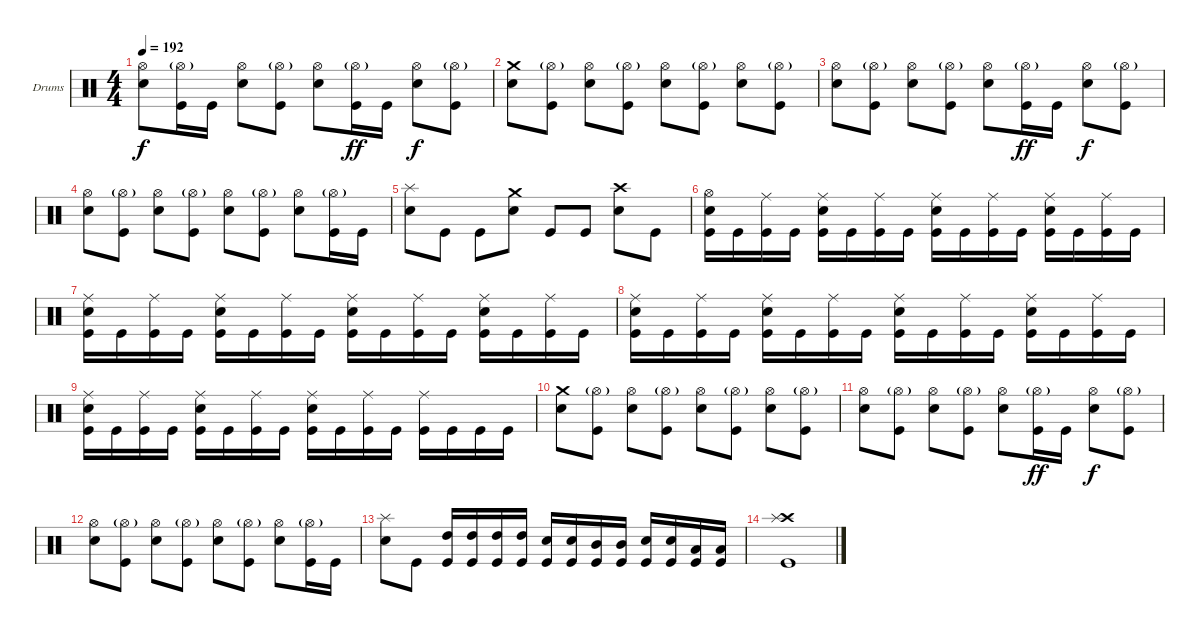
\bracketExtendMode groupsimilarinstruments
\firstSystemTrackNameOrientation horizontal
\otherSystemsTrackNameOrientation horizontal
\track ("Corey Friedlander" "Drums") {instrument percussion}
\staff {score}
\articulation defaults
\ts (4 4)
\tempo 192
\clef neutral
\ks aminor
("Snare (hit) 2" "Hi-Hat (open)").8{dy f} ("Kick (hit)" "Hi-Hat (open)"{g}).16 "Kick (hit)".16 ("Snare (hit) 2" "Hi-Hat (open)").8 ("Kick (hit)" "Hi-Hat (open)"{g}).8 ("Snare (hit) 2" "Hi-Hat (open)").8 ("Kick (hit)" "Hi-Hat (open)"{g}).16{dy ff} "Kick (hit)".16 ("Snare (hit) 2" "Hi-Hat (open)").8{dy f} ("Kick (hit)" "Hi-Hat (open)"{g}).8 |
("Snare (hit) 2" "Crash medium (hit)").8 ("Kick (hit)" "Hi-Hat (open)"{g}).8 ("Snare (hit) 2" "Hi-Hat (open)").8 ("Kick (hit)" "Hi-Hat (open)"{g}).8 ("Snare (hit) 2" "Hi-Hat (open)").8 ("Kick (hit)" "Hi-Hat (open)"{g}).8 ("Snare (hit) 2" "Hi-Hat (open)").8 ("Kick (hit)" "Hi-Hat (open)"{g}).8 |
("Snare (hit) 2" "Hi-Hat (open)").8 ("Kick (hit)" "Hi-Hat (open)"{g}).8 ("Snare (hit) 2" "Hi-Hat (open)").8 ("Kick (hit)" "Hi-Hat (open)"{g}).8 ("Snare (hit) 2" "Hi-Hat (open)").8 ("Kick (hit)" "Hi-Hat (open)"{g}).16{dy ff} "Kick (hit)".16 ("Snare (hit) 2" "Hi-Hat (open)").8{dy f} ("Kick (hit)" "Hi-Hat (open)"{g}).8 |
("Snare (hit) 2" "Hi-Hat (open)").8 ("Kick (hit)" "Hi-Hat (open)"{g}).8 ("Snare (hit) 2" "Hi-Hat (open)").8 ("Kick (hit)" "Hi-Hat (open)"{g}).8 ("Snare (hit) 2" "Hi-Hat (open)").8 ("Kick (hit)" "Hi-Hat (open)"{g}).8 ("Snare (hit) 2" "Hi-Hat (open)").8 ("Kick (hit)" "Hi-Hat (open)"{g}).16 "Kick (hit)".16 |
("Snare (hit) 2" "Splash (hit)").8 "Kick (hit)".8 "Kick (hit)".8 ("Snare (hit) 2" "Crash medium (hit)").8 "Kick (hit)".8 "Kick (hit)".8 ("Snare (hit) 2" "Crash high (hit)").8 "Kick (hit)".8 |
("Snare (hit) 2" "Kick (hit)" "Hi-Hat (open)").16 "Kick (hit)".16 ("Kick (hit)" "Ride (middle)").16 "Kick (hit)".16 ("Kick (hit)" "Snare (hit) 2" "Ride (middle)").16 "Kick (hit)".16 ("Kick (hit)" "Ride (middle)").16 "Kick (hit)".16 ("Kick (hit)" "Snare (hit) 2" "Ride (middle)").16 "Kick (hit)".16 ("Kick (hit)" "Ride (middle)").16 "Kick (hit)".16 ("Kick (hit)" "Snare (hit) 2" "Ride (middle)").16 "Kick (hit)".16 ("Kick (hit)" "Ride (middle)").16 "Kick (hit)".16 |
("Snare (hit) 2" "Kick (hit)" "Ride (middle)").16 "Kick (hit)".16 ("Kick (hit)" "Ride (middle)").16 "Kick (hit)".16 ("Kick (hit)" "Snare (hit) 2" "Ride (middle)").16 "Kick (hit)".16 ("Kick (hit)" "Ride (middle)").16 "Kick (hit)".16 ("Kick (hit)" "Snare (hit) 2" "Ride (middle)").16 "Kick (hit)".16 ("Kick (hit)" "Ride (middle)").16 "Kick (hit)".16 ("Kick (hit)" "Snare (hit) 2" "Ride (middle)").16 "Kick (hit)".16 ("Kick (hit)" "Ride (middle)").16 "Kick (hit)".16 |
("Snare (hit) 2" "Kick (hit)" "Ride (middle)").16 "Kick (hit)".16 ("Kick (hit)" "Ride (middle)").16 "Kick (hit)".16 ("Kick (hit)" "Snare (hit) 2" "Ride (middle)").16 "Kick (hit)".16 ("Kick (hit)" "Ride (middle)").16 "Kick (hit)".16 ("Kick (hit)" "Snare (hit) 2" "Ride (middle)").16 "Kick (hit)".16 ("Kick (hit)" "Ride (middle)").16 "Kick (hit)".16 ("Kick (hit)" "Snare (hit) 2" "Ride (middle)").16 "Kick (hit)".16 ("Kick (hit)" "Ride (middle)").16 "Kick (hit)".16 |
("Snare (hit) 2" "Kick (hit)" "Ride (middle)").16 "Kick (hit)".16 ("Kick (hit)" "Ride (middle)").16 "Kick (hit)".16 ("Kick (hit)" "Snare (hit) 2" "Ride (middle)").16 "Kick (hit)".16 ("Kick (hit)" "Ride (middle)").16 "Kick (hit)".16 ("Kick (hit)" "Snare (hit) 2" "Ride (middle)").16 "Kick (hit)".16 ("Kick (hit)" "Ride (middle)").16 "Kick (hit)".16 ("Kick (hit)" "Ride (middle)").16 "Kick (hit)".16 "Kick (hit)".16 "Kick (hit)".16 |
("Snare (hit) 2" "Crash medium (hit)").8 ("Kick (hit)" "Hi-Hat (open)"{g}).8 ("Snare (hit) 2" "Hi-Hat (open)").8 ("Kick (hit)" "Hi-Hat (open)"{g}).8 ("Snare (hit) 2" "Hi-Hat (open)").8 ("Kick (hit)" "Hi-Hat (open)"{g}).8 ("Snare (hit) 2" "Hi-Hat (open)").8 ("Kick (hit)" "Hi-Hat (open)"{g}).8 |
("Snare (hit) 2" "Hi-Hat (open)").8 ("Kick (hit)" "Hi-Hat (open)"{g}).8 ("Snare (hit) 2" "Hi-Hat (open)").8 ("Kick (hit)" "Hi-Hat (open)"{g}).8 ("Snare (hit) 2" "Hi-Hat (open)").8 ("Kick (hit)" "Hi-Hat (open)"{g}).16{dy ff} "Kick (hit)".16 ("Snare (hit) 2" "Hi-Hat (open)").8{dy f} ("Kick (hit)" "Hi-Hat (open)"{g}).8 |
("Snare (hit) 2" "Hi-Hat (open)").8 ("Kick (hit)" "Hi-Hat (open)"{g}).8 ("Snare (hit) 2" "Hi-Hat (open)").8 ("Kick (hit)" "Hi-Hat (open)"{g}).8 ("Snare (hit) 2" "Hi-Hat (open)").8 ("Kick (hit)" "Hi-Hat (open)"{g}).8 ("Snare (hit) 2" "Hi-Hat (open)").8 ("Kick (hit)" "Hi-Hat (open)"{g}).16 "Kick (hit)".16 |
("Snare (hit) 2" "Splash (hit)").8 "Kick (hit)".8 ("High Tom (hit)" "Kick (hit)").16 ("High Tom (hit)" "Kick (hit)").16 ("High Tom (hit)" "Kick (hit)").16 ("High Tom (hit)" "Kick (hit)").16 ("Snare (hit) 2" "Kick (hit)").16 ("Snare (hit) 2" "Kick (hit)").16 ("Kick (hit)" "Mid Tom (hit)").16 ("Kick (hit)" "Mid Tom (hit)").16 ("Kick (hit)" "Snare (hit) 2").16 ("Kick (hit)" "Snare (hit) 2").16 ("Low Tom (hit)" "Kick (hit)").16 ("Low Tom (hit)" "Kick (hit)").16 |
("Kick (hit)" "Crash high (hit)" "Splash (hit)").1
